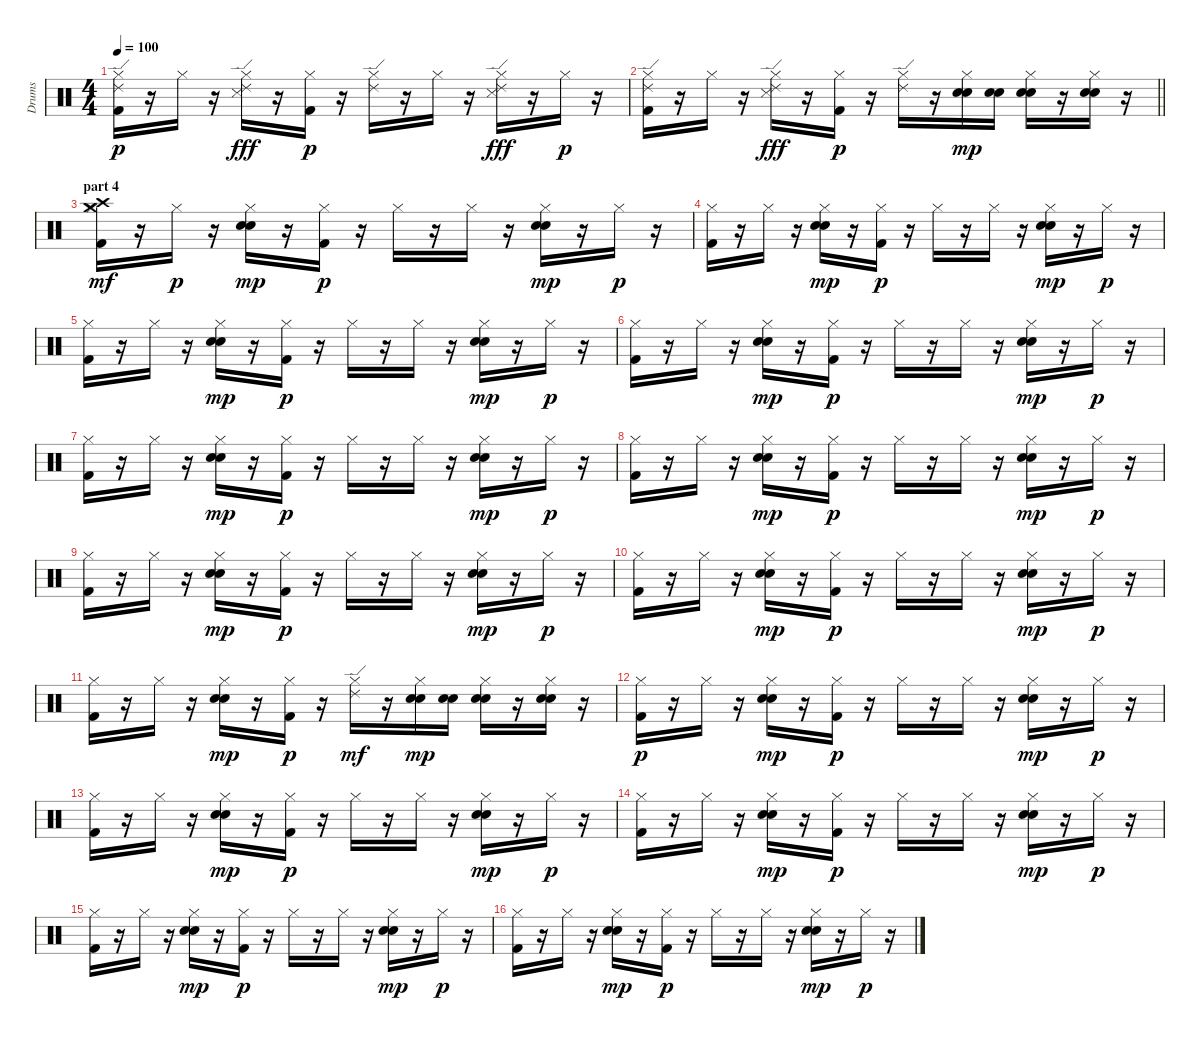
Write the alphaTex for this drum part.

\track ("Drums" "Drums") {instrument percussion}
\staff {score}
\articulation defaults
\ts (4 4)
\tempo 100
\clef neutral
\ks c
("Hi-Hat (closed)" "Ride (edge) 2" "Kick (hit) 2").16{dy p} r.16 "Hi-Hat (closed)".16 r.16 ("Hi-Hat (closed)" "Ride (edge) 2" "Snare (side stick) 3").16{dy fff} r.16 ("Hi-Hat (closed)" "Kick (hit) 2").16{dy p} r.16 ("Hi-Hat (closed)" "Ride (edge) 2").16 r.16 "Hi-Hat (closed)".16 r.16 ("Hi-Hat (closed)" "Ride (edge) 2" "Snare (side stick) 3").16{dy fff} r.16 "Hi-Hat (closed)".16{dy p} r.16 |
\barLineRight lightlight
("Hi-Hat (closed)" "Ride (edge) 2" "Kick (hit) 2").16 r.16 "Hi-Hat (closed)".16 r.16 ("Hi-Hat (closed)" "Ride (edge) 2" "Snare (side stick) 3").16{dy fff} r.16 ("Hi-Hat (closed)" "Kick (hit) 2").16{dy p} r.16 ("Hi-Hat (closed)" "Ride (edge) 2").16 r.16 ("Hi-Hat (closed)" "Electric Snare (hit)" "Snare (hit) 2").16{dy mp} ("Electric Snare (hit)" "Snare (hit) 2").16 ("Hi-Hat (closed)" "Electric Snare (hit)" "Snare (hit) 2").16 r.16 ("Hi-Hat (closed)" "Electric Snare (hit)" "Snare (hit) 2").16 r.16 |
\section ("" "part 4")
("Hi-Hat (closed)" "Crash medium (hit)" "Crash high (hit)" "Kick (hit) 2").16{dy mf} r.16 "Hi-Hat (closed)".16{dy p} r.16 ("Hi-Hat (closed)" "Electric Snare (hit)" "Snare (hit) 2").16{dy mp} r.16 ("Hi-Hat (closed)" "Kick (hit) 2").16{dy p} r.16 "Hi-Hat (closed)".16 r.16 "Hi-Hat (closed)".16 r.16 ("Hi-Hat (closed)" "Electric Snare (hit)" "Snare (hit) 2").16{dy mp} r.16 "Hi-Hat (closed)".16{dy p} r.16 |
("Hi-Hat (closed)" "Kick (hit) 2").16 r.16 "Hi-Hat (closed)".16 r.16 ("Hi-Hat (closed)" "Electric Snare (hit)" "Snare (hit) 2").16{dy mp} r.16 ("Hi-Hat (closed)" "Kick (hit) 2").16{dy p} r.16 "Hi-Hat (closed)".16 r.16 "Hi-Hat (closed)".16 r.16 ("Hi-Hat (closed)" "Electric Snare (hit)" "Snare (hit) 2").16{dy mp} r.16 "Hi-Hat (closed)".16{dy p} r.16 |
("Hi-Hat (closed)" "Kick (hit) 2").16 r.16 "Hi-Hat (closed)".16 r.16 ("Hi-Hat (closed)" "Electric Snare (hit)" "Snare (hit) 2").16{dy mp} r.16 ("Hi-Hat (closed)" "Kick (hit) 2").16{dy p} r.16 "Hi-Hat (closed)".16 r.16 "Hi-Hat (closed)".16 r.16 ("Hi-Hat (closed)" "Electric Snare (hit)" "Snare (hit) 2").16{dy mp} r.16 "Hi-Hat (closed)".16{dy p} r.16 |
("Hi-Hat (closed)" "Kick (hit) 2").16 r.16 "Hi-Hat (closed)".16 r.16 ("Hi-Hat (closed)" "Electric Snare (hit)" "Snare (hit) 2").16{dy mp} r.16 ("Hi-Hat (closed)" "Kick (hit) 2").16{dy p} r.16 "Hi-Hat (closed)".16 r.16 "Hi-Hat (closed)".16 r.16 ("Hi-Hat (closed)" "Electric Snare (hit)" "Snare (hit) 2").16{dy mp} r.16 "Hi-Hat (closed)".16{dy p} r.16 |
("Hi-Hat (closed)" "Kick (hit) 2").16 r.16 "Hi-Hat (closed)".16 r.16 ("Hi-Hat (closed)" "Electric Snare (hit)" "Snare (hit) 2").16{dy mp} r.16 ("Hi-Hat (closed)" "Kick (hit) 2").16{dy p} r.16 "Hi-Hat (closed)".16 r.16 "Hi-Hat (closed)".16 r.16 ("Hi-Hat (closed)" "Electric Snare (hit)" "Snare (hit) 2").16{dy mp} r.16 "Hi-Hat (closed)".16{dy p} r.16 |
("Hi-Hat (closed)" "Kick (hit) 2").16 r.16 "Hi-Hat (closed)".16 r.16 ("Hi-Hat (closed)" "Electric Snare (hit)" "Snare (hit) 2").16{dy mp} r.16 ("Hi-Hat (closed)" "Kick (hit) 2").16{dy p} r.16 "Hi-Hat (closed)".16 r.16 "Hi-Hat (closed)".16 r.16 ("Hi-Hat (closed)" "Electric Snare (hit)" "Snare (hit) 2").16{dy mp} r.16 "Hi-Hat (closed)".16{dy p} r.16 |
("Hi-Hat (closed)" "Kick (hit) 2").16 r.16 "Hi-Hat (closed)".16 r.16 ("Hi-Hat (closed)" "Electric Snare (hit)" "Snare (hit) 2").16{dy mp} r.16 ("Hi-Hat (closed)" "Kick (hit) 2").16{dy p} r.16 "Hi-Hat (closed)".16 r.16 "Hi-Hat (closed)".16 r.16 ("Hi-Hat (closed)" "Electric Snare (hit)" "Snare (hit) 2").16{dy mp} r.16 "Hi-Hat (closed)".16{dy p} r.16 |
("Hi-Hat (closed)" "Kick (hit) 2").16 r.16 "Hi-Hat (closed)".16 r.16 ("Hi-Hat (closed)" "Electric Snare (hit)" "Snare (hit) 2").16{dy mp} r.16 ("Hi-Hat (closed)" "Kick (hit) 2").16{dy p} r.16 "Hi-Hat (closed)".16 r.16 "Hi-Hat (closed)".16 r.16 ("Hi-Hat (closed)" "Electric Snare (hit)" "Snare (hit) 2").16{dy mp} r.16 "Hi-Hat (closed)".16{dy p} r.16 |
("Hi-Hat (closed)" "Kick (hit) 2").16 r.16 "Hi-Hat (closed)".16 r.16 ("Hi-Hat (closed)" "Electric Snare (hit)" "Snare (hit) 2").16{dy mp} r.16 ("Hi-Hat (closed)" "Kick (hit) 2").16{dy p} r.16 ("Hi-Hat (closed)" "Ride (edge) 2").16{dy mf} r.16 ("Hi-Hat (closed)" "Electric Snare (hit)" "Snare (hit) 2").16{dy mp} ("Electric Snare (hit)" "Snare (hit) 2").16 ("Hi-Hat (closed)" "Electric Snare (hit)" "Snare (hit) 2").16 r.16 ("Hi-Hat (closed)" "Electric Snare (hit)" "Snare (hit) 2").16 r.16 |
("Hi-Hat (closed)" "Kick (hit) 2").16{dy p} r.16 "Hi-Hat (closed)".16 r.16 ("Hi-Hat (closed)" "Electric Snare (hit)" "Snare (hit) 2").16{dy mp} r.16 ("Hi-Hat (closed)" "Kick (hit) 2").16{dy p} r.16 "Hi-Hat (closed)".16 r.16 "Hi-Hat (closed)".16 r.16 ("Hi-Hat (closed)" "Electric Snare (hit)" "Snare (hit) 2").16{dy mp} r.16 "Hi-Hat (closed)".16{dy p} r.16 |
("Hi-Hat (closed)" "Kick (hit) 2").16 r.16 "Hi-Hat (closed)".16 r.16 ("Hi-Hat (closed)" "Electric Snare (hit)" "Snare (hit) 2").16{dy mp} r.16 ("Hi-Hat (closed)" "Kick (hit) 2").16{dy p} r.16 "Hi-Hat (closed)".16 r.16 "Hi-Hat (closed)".16 r.16 ("Hi-Hat (closed)" "Electric Snare (hit)" "Snare (hit) 2").16{dy mp} r.16 "Hi-Hat (closed)".16{dy p} r.16 |
("Hi-Hat (closed)" "Kick (hit) 2").16 r.16 "Hi-Hat (closed)".16 r.16 ("Hi-Hat (closed)" "Electric Snare (hit)" "Snare (hit) 2").16{dy mp} r.16 ("Hi-Hat (closed)" "Kick (hit) 2").16{dy p} r.16 "Hi-Hat (closed)".16 r.16 "Hi-Hat (closed)".16 r.16 ("Hi-Hat (closed)" "Electric Snare (hit)" "Snare (hit) 2").16{dy mp} r.16 "Hi-Hat (closed)".16{dy p} r.16 |
("Hi-Hat (closed)" "Kick (hit) 2").16 r.16 "Hi-Hat (closed)".16 r.16 ("Hi-Hat (closed)" "Electric Snare (hit)" "Snare (hit) 2").16{dy mp} r.16 ("Hi-Hat (closed)" "Kick (hit) 2").16{dy p} r.16 "Hi-Hat (closed)".16 r.16 "Hi-Hat (closed)".16 r.16 ("Hi-Hat (closed)" "Electric Snare (hit)" "Snare (hit) 2").16{dy mp} r.16 "Hi-Hat (closed)".16{dy p} r.16 |
("Hi-Hat (closed)" "Kick (hit) 2").16 r.16 "Hi-Hat (closed)".16 r.16 ("Hi-Hat (closed)" "Electric Snare (hit)" "Snare (hit) 2").16{dy mp} r.16 ("Hi-Hat (closed)" "Kick (hit) 2").16{dy p} r.16 "Hi-Hat (closed)".16 r.16 "Hi-Hat (closed)".16 r.16 ("Hi-Hat (closed)" "Electric Snare (hit)" "Snare (hit) 2").16{dy mp} r.16 "Hi-Hat (closed)".16{dy p} r.16
